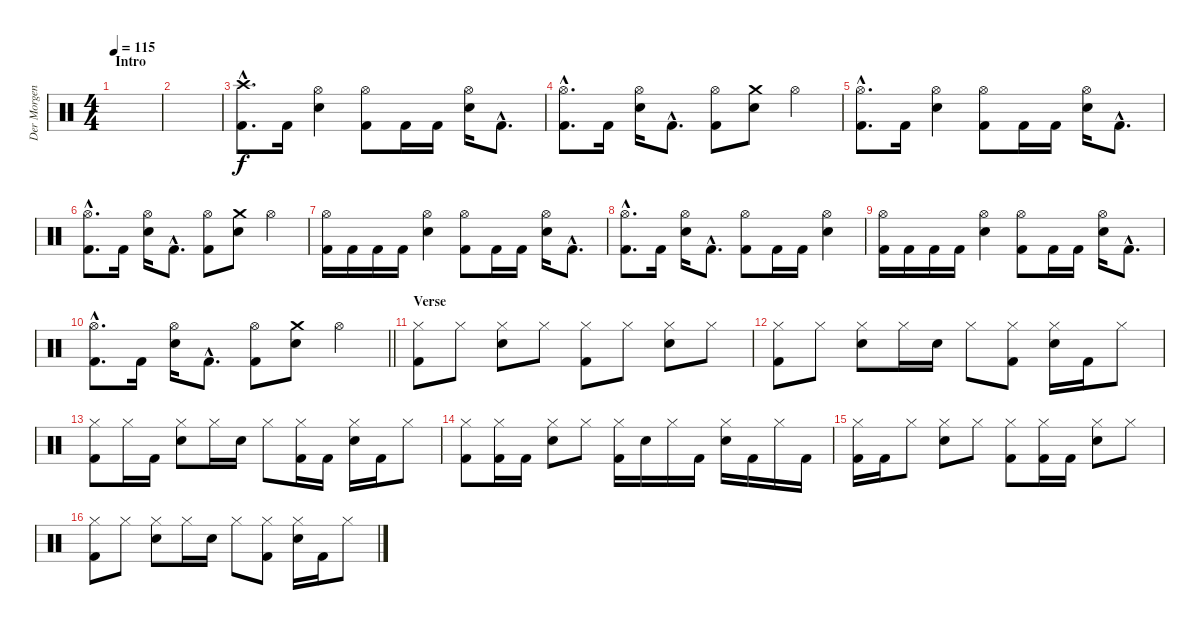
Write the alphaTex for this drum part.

\track ("Der Morgenstern" "Der Morgen") {instrument percussion}
\staff {score}
\articulation defaults
\ts (4 4)
\section ("" "Intro")
\tempo 115
\clef neutral
\ks c
|
|
("Crash high (hit)"{hac} "Kick (hit) 2"{hac}).8{d} "Kick (hit) 2".16 ("Hi-Hat (open)" "Electric Snare (hit)").4 ("Hi-Hat (open)" "Kick (hit) 2").8 "Kick (hit) 2".16 "Kick (hit) 2".16 ("Hi-Hat (open)" "Electric Snare (hit)").16 "Kick (hit) 2"{hac}.8{d} |
("Hi-Hat (open)"{hac} "Kick (hit) 2"{hac}).8{d} "Kick (hit) 2".16 ("Hi-Hat (open)" "Electric Snare (hit)").16 "Kick (hit) 2"{hac}.8{d} ("Hi-Hat (open)" "Kick (hit) 2").8 ("Crash medium (hit)" "Electric Snare (hit)").8 "Hi-Hat (open)".4 |
("Hi-Hat (open)"{hac} "Kick (hit) 2"{hac}).8{d} "Kick (hit) 2".16 ("Hi-Hat (open)" "Electric Snare (hit)").4 ("Hi-Hat (open)" "Kick (hit) 2").8 "Kick (hit) 2".16 "Kick (hit) 2".16 ("Hi-Hat (open)" "Electric Snare (hit)").16 "Kick (hit) 2"{hac}.8{d} |
("Hi-Hat (open)"{hac} "Kick (hit) 2"{hac}).8{d} "Kick (hit) 2".16 ("Hi-Hat (open)" "Electric Snare (hit)").16 "Kick (hit) 2"{hac}.8{d} ("Hi-Hat (open)" "Kick (hit) 2").8 ("Crash medium (hit)" "Electric Snare (hit)").8 "Hi-Hat (open)".4 |
("Hi-Hat (open)" "Kick (hit) 2").16 "Kick (hit) 2".16 "Kick (hit) 2".16 "Kick (hit) 2".16 ("Hi-Hat (open)" "Electric Snare (hit)").4 ("Hi-Hat (open)" "Kick (hit) 2").8 "Kick (hit) 2".16 "Kick (hit) 2".16 ("Hi-Hat (open)" "Electric Snare (hit)").16 "Kick (hit) 2"{hac}.8{d} |
("Hi-Hat (open)"{hac} "Kick (hit) 2"{hac}).8{d} "Kick (hit) 2".16 ("Hi-Hat (open)" "Electric Snare (hit)").16 "Kick (hit) 2"{hac}.8{d} ("Hi-Hat (open)" "Kick (hit) 2").8 "Kick (hit) 2".16 "Kick (hit) 2".16 ("Hi-Hat (open)" "Electric Snare (hit)").4 |
("Hi-Hat (open)" "Kick (hit) 2").16 "Kick (hit) 2".16 "Kick (hit) 2".16 "Kick (hit) 2".16 ("Hi-Hat (open)" "Electric Snare (hit)").4 ("Hi-Hat (open)" "Kick (hit) 2").8 "Kick (hit) 2".16 "Kick (hit) 2".16 ("Hi-Hat (open)" "Electric Snare (hit)").16 "Kick (hit) 2"{hac}.8{d} |
\barLineRight lightlight
("Hi-Hat (open)"{hac} "Kick (hit) 2"{hac}).8{d} "Kick (hit) 2".16 ("Hi-Hat (open)" "Electric Snare (hit)").16 "Kick (hit) 2"{hac}.8{d} ("Hi-Hat (open)" "Kick (hit) 2").8 ("Crash medium (hit)" "Electric Snare (hit)").8 "Hi-Hat (open)".4 |
\section ("" "Verse")
("Hi-Hat (closed)" "Kick (hit) 2").8 "Hi-Hat (closed)".8 ("Hi-Hat (closed)" "Electric Snare (hit)").8 "Hi-Hat (closed)".8 ("Hi-Hat (closed)" "Kick (hit) 2").8 "Hi-Hat (closed)".8 ("Hi-Hat (closed)" "Electric Snare (hit)").8 "Hi-Hat (closed)".8 |
("Hi-Hat (closed)" "Kick (hit) 2").8 "Hi-Hat (closed)".8 ("Hi-Hat (closed)" "Electric Snare (hit)").8 "Hi-Hat (closed)".16 "Electric Snare (hit)".16 "Hi-Hat (closed)".8 ("Hi-Hat (closed)" "Kick (hit) 2").8 ("Hi-Hat (closed)" "Electric Snare (hit)").16 "Kick (hit) 2".16 "Hi-Hat (closed)".8 |
("Hi-Hat (closed)" "Kick (hit) 2").8 "Hi-Hat (closed)".16 "Kick (hit) 2".16 ("Hi-Hat (closed)" "Electric Snare (hit)").8 "Hi-Hat (closed)".16 "Electric Snare (hit)".16 "Hi-Hat (closed)".8 ("Hi-Hat (closed)" "Kick (hit) 2").16 "Kick (hit) 2".16 ("Hi-Hat (closed)" "Electric Snare (hit)").16 "Kick (hit) 2".16 "Hi-Hat (closed)".8 |
("Hi-Hat (closed)" "Kick (hit) 2").8 ("Hi-Hat (closed)" "Kick (hit) 2").16 "Kick (hit) 2".16 ("Hi-Hat (closed)" "Electric Snare (hit)").8 "Hi-Hat (closed)".8 ("Hi-Hat (closed)" "Kick (hit) 2").16 "Electric Snare (hit)".16 "Hi-Hat (closed)".16 "Kick (hit) 2".16 ("Hi-Hat (closed)" "Electric Snare (hit)").16 "Kick (hit) 2".16 "Hi-Hat (closed)".16 "Kick (hit) 2".16 |
("Hi-Hat (closed)" "Kick (hit) 2").16 "Kick (hit) 2".16 "Hi-Hat (closed)".8 ("Hi-Hat (closed)" "Electric Snare (hit)").8 "Hi-Hat (closed)".8 ("Hi-Hat (closed)" "Kick (hit) 2").8 ("Hi-Hat (closed)" "Kick (hit) 2").16 "Kick (hit) 2".16 ("Hi-Hat (closed)" "Electric Snare (hit)").8 "Hi-Hat (closed)".8 |
("Hi-Hat (closed)" "Kick (hit) 2").8 "Hi-Hat (closed)".8 ("Hi-Hat (closed)" "Electric Snare (hit)").8 "Hi-Hat (closed)".16 "Electric Snare (hit)".16 "Hi-Hat (closed)".8 ("Hi-Hat (closed)" "Kick (hit) 2").8 ("Hi-Hat (closed)" "Electric Snare (hit)").16 "Kick (hit) 2".16 "Hi-Hat (closed)".8
